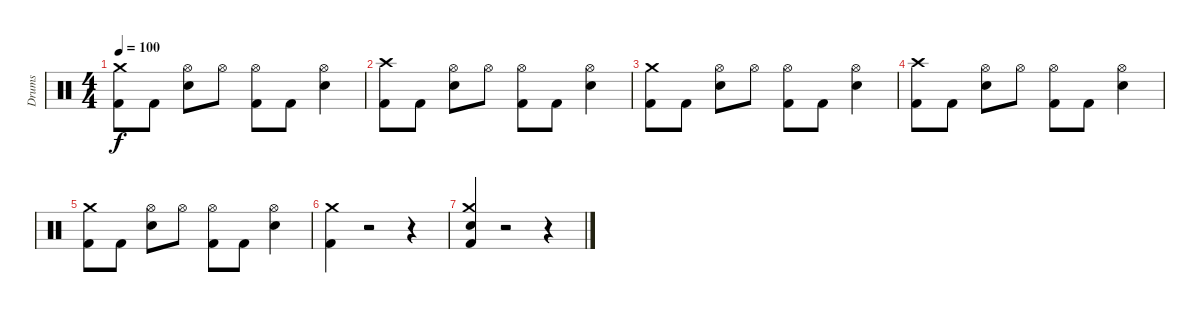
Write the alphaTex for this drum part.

\track ("Drums" "Drums") {instrument percussion}
\staff {score}
\articulation defaults
\ts (4 4)
\tempo 100
\clef neutral
\ks c
("Kick (hit) 2" "Crash medium (hit)").8{dy f} "Kick (hit) 2".8 ("Hi-Hat (open)" "Snare (hit) 2").8 "Hi-Hat (open)".8 ("Kick (hit) 2" "Hi-Hat (open)").8 "Kick (hit) 2".8 ("Hi-Hat (open)" "Snare (hit) 2").4 |
("Kick (hit) 2" "Crash high (hit)").8 "Kick (hit) 2".8 ("Hi-Hat (open)" "Snare (hit) 2").8 "Hi-Hat (open)".8 ("Kick (hit) 2" "Hi-Hat (open)").8 "Kick (hit) 2".8 ("Hi-Hat (open)" "Snare (hit) 2").4 |
("Kick (hit) 2" "Crash medium (hit)").8 "Kick (hit) 2".8 ("Hi-Hat (open)" "Snare (hit) 2").8 "Hi-Hat (open)".8 ("Kick (hit) 2" "Hi-Hat (open)").8 "Kick (hit) 2".8 ("Hi-Hat (open)" "Snare (hit) 2").4 |
("Kick (hit) 2" "Crash high (hit)").8 "Kick (hit) 2".8 ("Hi-Hat (open)" "Snare (hit) 2").8 "Hi-Hat (open)".8 ("Kick (hit) 2" "Hi-Hat (open)").8 "Kick (hit) 2".8 ("Hi-Hat (open)" "Snare (hit) 2").4 |
("Kick (hit) 2" "Crash medium (hit)").8 "Kick (hit) 2".8 ("Hi-Hat (open)" "Snare (hit) 2").8 "Hi-Hat (open)".8 ("Kick (hit) 2" "Hi-Hat (open)").8 "Kick (hit) 2".8 ("Hi-Hat (open)" "Snare (hit) 2").4 |
("Kick (hit) 2" "Crash medium (hit)").4 r.2 r.4 |
("Kick (hit) 2" "Crash medium (hit)" "Snare (hit) 2").4 r.2 r.4
